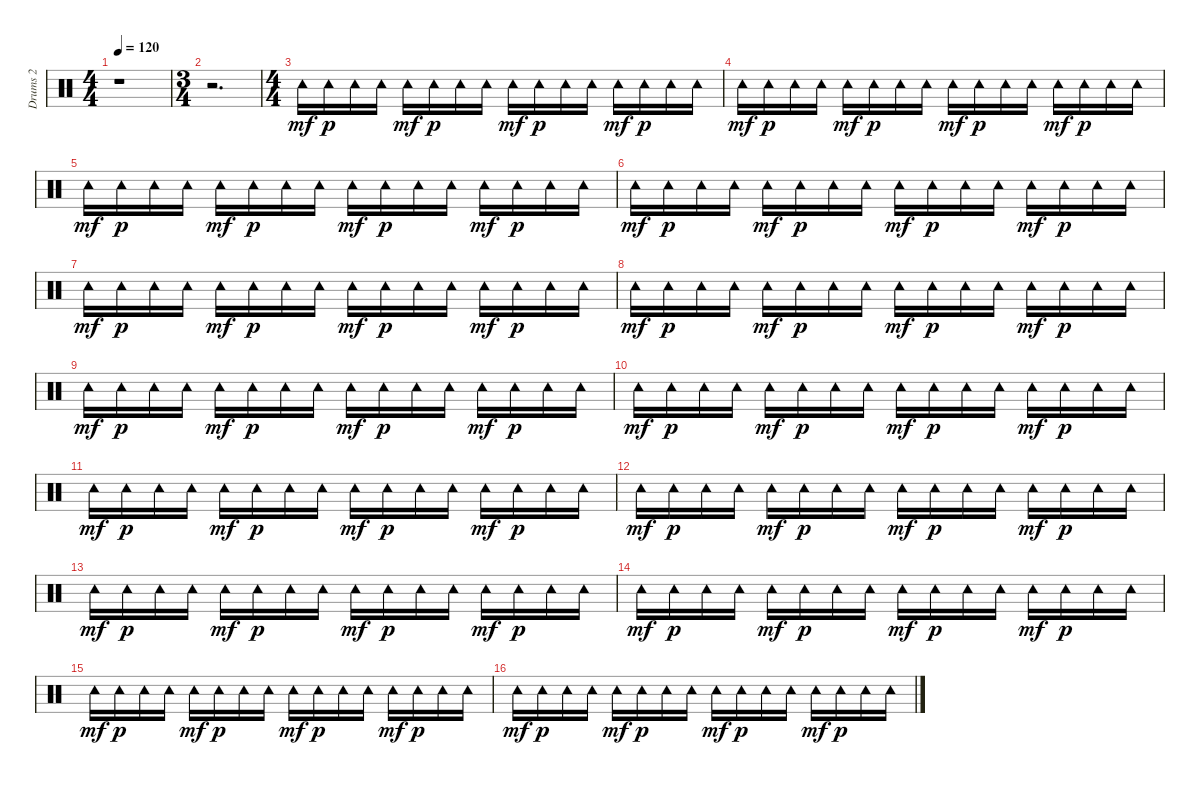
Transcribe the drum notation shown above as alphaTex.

\track ("Drums 2" "Drums 2") {instrument percussion}
\staff {score}
\articulation defaults
\ts (4 4)
\tempo 120
\clef neutral
\ks c
r.1{dy p} |
\ts (3 4)
r.2{d} |
\ts (4 4)
"Tambourine (hit)".16{dy mf} "Tambourine (hit)".16{dy p} "Tambourine (hit)".16 "Tambourine (hit)".16 "Tambourine (hit)".16{dy mf} "Tambourine (hit)".16{dy p} "Tambourine (hit)".16 "Tambourine (hit)".16 "Tambourine (hit)".16{dy mf} "Tambourine (hit)".16{dy p} "Tambourine (hit)".16 "Tambourine (hit)".16 "Tambourine (hit)".16{dy mf} "Tambourine (hit)".16{dy p} "Tambourine (hit)".16 "Tambourine (hit)".16 |
"Tambourine (hit)".16{dy mf} "Tambourine (hit)".16{dy p} "Tambourine (hit)".16 "Tambourine (hit)".16 "Tambourine (hit)".16{dy mf} "Tambourine (hit)".16{dy p} "Tambourine (hit)".16 "Tambourine (hit)".16 "Tambourine (hit)".16{dy mf} "Tambourine (hit)".16{dy p} "Tambourine (hit)".16 "Tambourine (hit)".16 "Tambourine (hit)".16{dy mf} "Tambourine (hit)".16{dy p} "Tambourine (hit)".16 "Tambourine (hit)".16 |
"Tambourine (hit)".16{dy mf} "Tambourine (hit)".16{dy p} "Tambourine (hit)".16 "Tambourine (hit)".16 "Tambourine (hit)".16{dy mf} "Tambourine (hit)".16{dy p} "Tambourine (hit)".16 "Tambourine (hit)".16 "Tambourine (hit)".16{dy mf} "Tambourine (hit)".16{dy p} "Tambourine (hit)".16 "Tambourine (hit)".16 "Tambourine (hit)".16{dy mf} "Tambourine (hit)".16{dy p} "Tambourine (hit)".16 "Tambourine (hit)".16 |
"Tambourine (hit)".16{dy mf} "Tambourine (hit)".16{dy p} "Tambourine (hit)".16 "Tambourine (hit)".16 "Tambourine (hit)".16{dy mf} "Tambourine (hit)".16{dy p} "Tambourine (hit)".16 "Tambourine (hit)".16 "Tambourine (hit)".16{dy mf} "Tambourine (hit)".16{dy p} "Tambourine (hit)".16 "Tambourine (hit)".16 "Tambourine (hit)".16{dy mf} "Tambourine (hit)".16{dy p} "Tambourine (hit)".16 "Tambourine (hit)".16 |
"Tambourine (hit)".16{dy mf} "Tambourine (hit)".16{dy p} "Tambourine (hit)".16 "Tambourine (hit)".16 "Tambourine (hit)".16{dy mf} "Tambourine (hit)".16{dy p} "Tambourine (hit)".16 "Tambourine (hit)".16 "Tambourine (hit)".16{dy mf} "Tambourine (hit)".16{dy p} "Tambourine (hit)".16 "Tambourine (hit)".16 "Tambourine (hit)".16{dy mf} "Tambourine (hit)".16{dy p} "Tambourine (hit)".16 "Tambourine (hit)".16 |
"Tambourine (hit)".16{dy mf} "Tambourine (hit)".16{dy p} "Tambourine (hit)".16 "Tambourine (hit)".16 "Tambourine (hit)".16{dy mf} "Tambourine (hit)".16{dy p} "Tambourine (hit)".16 "Tambourine (hit)".16 "Tambourine (hit)".16{dy mf} "Tambourine (hit)".16{dy p} "Tambourine (hit)".16 "Tambourine (hit)".16 "Tambourine (hit)".16{dy mf} "Tambourine (hit)".16{dy p} "Tambourine (hit)".16 "Tambourine (hit)".16 |
"Tambourine (hit)".16{dy mf} "Tambourine (hit)".16{dy p} "Tambourine (hit)".16 "Tambourine (hit)".16 "Tambourine (hit)".16{dy mf} "Tambourine (hit)".16{dy p} "Tambourine (hit)".16 "Tambourine (hit)".16 "Tambourine (hit)".16{dy mf} "Tambourine (hit)".16{dy p} "Tambourine (hit)".16 "Tambourine (hit)".16 "Tambourine (hit)".16{dy mf} "Tambourine (hit)".16{dy p} "Tambourine (hit)".16 "Tambourine (hit)".16 |
"Tambourine (hit)".16{dy mf} "Tambourine (hit)".16{dy p} "Tambourine (hit)".16 "Tambourine (hit)".16 "Tambourine (hit)".16{dy mf} "Tambourine (hit)".16{dy p} "Tambourine (hit)".16 "Tambourine (hit)".16 "Tambourine (hit)".16{dy mf} "Tambourine (hit)".16{dy p} "Tambourine (hit)".16 "Tambourine (hit)".16 "Tambourine (hit)".16{dy mf} "Tambourine (hit)".16{dy p} "Tambourine (hit)".16 "Tambourine (hit)".16 |
"Tambourine (hit)".16{dy mf} "Tambourine (hit)".16{dy p} "Tambourine (hit)".16 "Tambourine (hit)".16 "Tambourine (hit)".16{dy mf} "Tambourine (hit)".16{dy p} "Tambourine (hit)".16 "Tambourine (hit)".16 "Tambourine (hit)".16{dy mf} "Tambourine (hit)".16{dy p} "Tambourine (hit)".16 "Tambourine (hit)".16 "Tambourine (hit)".16{dy mf} "Tambourine (hit)".16{dy p} "Tambourine (hit)".16 "Tambourine (hit)".16 |
"Tambourine (hit)".16{dy mf} "Tambourine (hit)".16{dy p} "Tambourine (hit)".16 "Tambourine (hit)".16 "Tambourine (hit)".16{dy mf} "Tambourine (hit)".16{dy p} "Tambourine (hit)".16 "Tambourine (hit)".16 "Tambourine (hit)".16{dy mf} "Tambourine (hit)".16{dy p} "Tambourine (hit)".16 "Tambourine (hit)".16 "Tambourine (hit)".16{dy mf} "Tambourine (hit)".16{dy p} "Tambourine (hit)".16 "Tambourine (hit)".16 |
"Tambourine (hit)".16{dy mf} "Tambourine (hit)".16{dy p} "Tambourine (hit)".16 "Tambourine (hit)".16 "Tambourine (hit)".16{dy mf} "Tambourine (hit)".16{dy p} "Tambourine (hit)".16 "Tambourine (hit)".16 "Tambourine (hit)".16{dy mf} "Tambourine (hit)".16{dy p} "Tambourine (hit)".16 "Tambourine (hit)".16 "Tambourine (hit)".16{dy mf} "Tambourine (hit)".16{dy p} "Tambourine (hit)".16 "Tambourine (hit)".16 |
"Tambourine (hit)".16{dy mf} "Tambourine (hit)".16{dy p} "Tambourine (hit)".16 "Tambourine (hit)".16 "Tambourine (hit)".16{dy mf} "Tambourine (hit)".16{dy p} "Tambourine (hit)".16 "Tambourine (hit)".16 "Tambourine (hit)".16{dy mf} "Tambourine (hit)".16{dy p} "Tambourine (hit)".16 "Tambourine (hit)".16 "Tambourine (hit)".16{dy mf} "Tambourine (hit)".16{dy p} "Tambourine (hit)".16 "Tambourine (hit)".16 |
"Tambourine (hit)".16{dy mf} "Tambourine (hit)".16{dy p} "Tambourine (hit)".16 "Tambourine (hit)".16 "Tambourine (hit)".16{dy mf} "Tambourine (hit)".16{dy p} "Tambourine (hit)".16 "Tambourine (hit)".16 "Tambourine (hit)".16{dy mf} "Tambourine (hit)".16{dy p} "Tambourine (hit)".16 "Tambourine (hit)".16 "Tambourine (hit)".16{dy mf} "Tambourine (hit)".16{dy p} "Tambourine (hit)".16 "Tambourine (hit)".16 |
"Tambourine (hit)".16{dy mf} "Tambourine (hit)".16{dy p} "Tambourine (hit)".16 "Tambourine (hit)".16 "Tambourine (hit)".16{dy mf} "Tambourine (hit)".16{dy p} "Tambourine (hit)".16 "Tambourine (hit)".16 "Tambourine (hit)".16{dy mf} "Tambourine (hit)".16{dy p} "Tambourine (hit)".16 "Tambourine (hit)".16 "Tambourine (hit)".16{dy mf} "Tambourine (hit)".16{dy p} "Tambourine (hit)".16 "Tambourine (hit)".16
